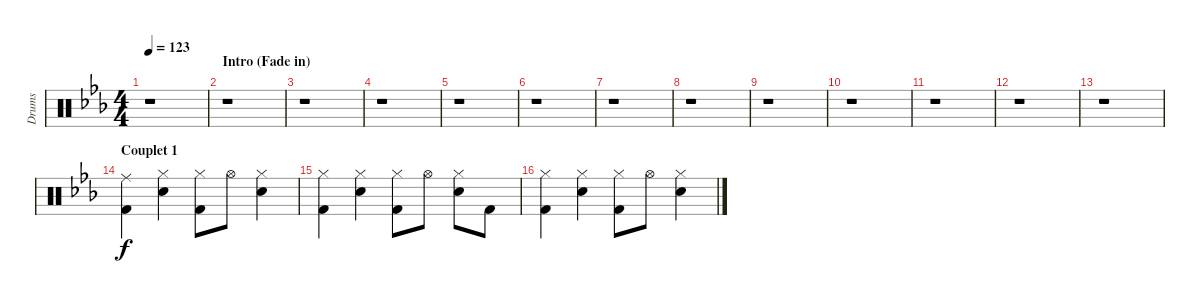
\track ("Drums" "Drums") {instrument percussion}
\staff {score}
\articulation defaults
\ts (4 4)
\tempo 123
\clef neutral
\ks cminor
r.1{dy f} |
\section ("" "Intro (Fade in)")
r.1 |
r.1 |
r.1 |
r.1 |
r.1 |
r.1 |
r.1 |
r.1 |
r.1 |
r.1 |
r.1 |
r.1 |
\section ("" "Couplet 1")
("Ride (middle)" "Kick (hit) 2").4 ("Hi-Hat (closed)" "Electric Snare (hit)").4 ("Hi-Hat (closed)" "Kick (hit) 2").8 "Hi-Hat (open)".8 ("Hi-Hat (closed)" "Electric Snare (hit)").4 |
("Hi-Hat (closed)" "Kick (hit) 2").4 ("Hi-Hat (closed)" "Electric Snare (hit)").4 ("Hi-Hat (closed)" "Kick (hit) 2").8 "Hi-Hat (open)".8 ("Hi-Hat (closed)" "Electric Snare (hit)").8 "Kick (hit) 2".8 |
("Hi-Hat (closed)" "Kick (hit) 2").4 ("Hi-Hat (closed)" "Electric Snare (hit)").4 ("Hi-Hat (closed)" "Kick (hit) 2").8 "Hi-Hat (open)".8 ("Hi-Hat (closed)" "Electric Snare (hit)").4
